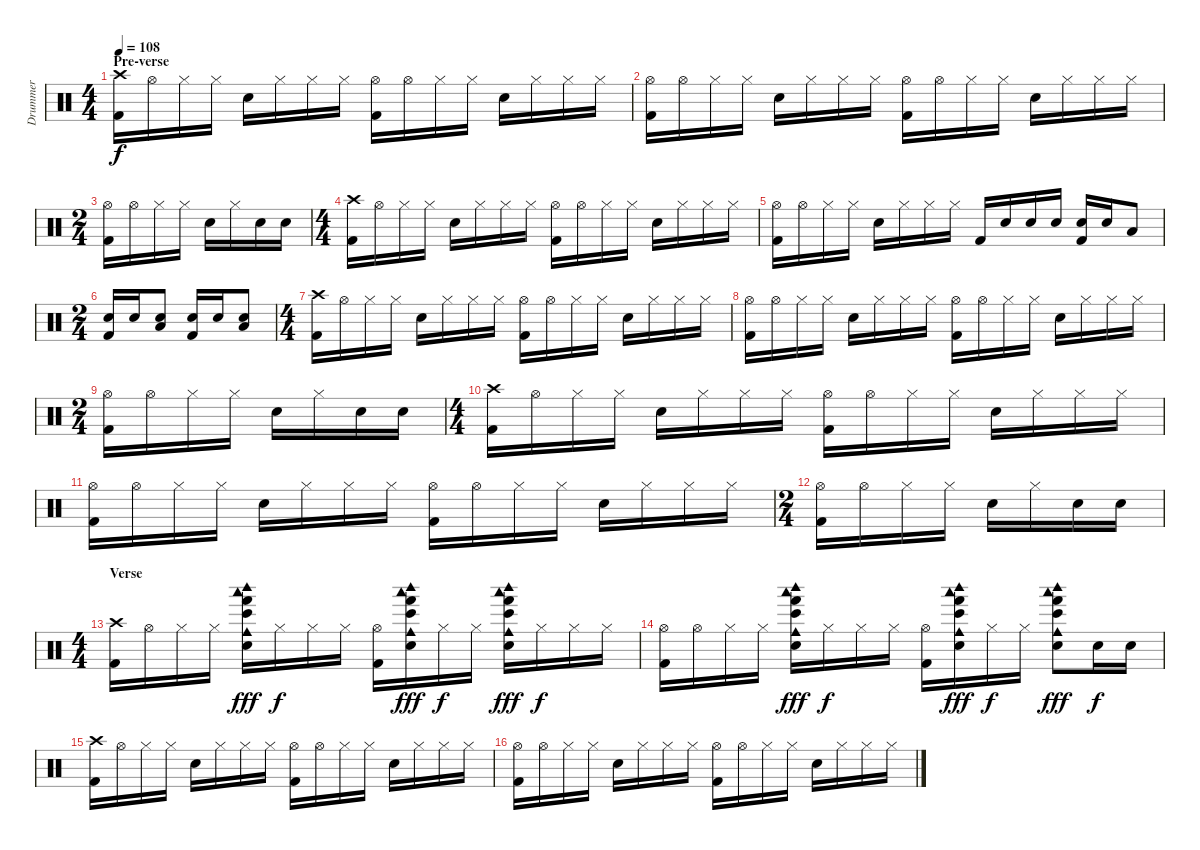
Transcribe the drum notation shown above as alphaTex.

\track ("Drummer" "Drummer") {instrument percussion}
\staff {score}
\articulation defaults
\ts (4 4)
\section ("" "Pre-verse")
\tempo 108
\clef neutral
\ks c
("Crash high (hit)" "Kick (hit) 2").16{dy f} "Hi-Hat (open)".16 "Hi-Hat (closed)".16 "Hi-Hat (closed)".16 "Electric Snare (hit)".16 "Hi-Hat (closed)".16 "Hi-Hat (closed)".16 "Hi-Hat (closed)".16 ("Hi-Hat (open)" "Kick (hit) 2").16 "Hi-Hat (open)".16 "Hi-Hat (closed)".16 "Hi-Hat (closed)".16 "Electric Snare (hit)".16 "Hi-Hat (closed)".16 "Hi-Hat (closed)".16 "Hi-Hat (closed)".16 |
("Hi-Hat (open)" "Kick (hit) 2").16 "Hi-Hat (open)".16 "Hi-Hat (closed)".16 "Hi-Hat (closed)".16 "Electric Snare (hit)".16 "Hi-Hat (closed)".16 "Hi-Hat (closed)".16 "Hi-Hat (closed)".16 ("Hi-Hat (open)" "Kick (hit) 2").16 "Hi-Hat (open)".16 "Hi-Hat (closed)".16 "Hi-Hat (closed)".16 "Electric Snare (hit)".16 "Hi-Hat (closed)".16 "Hi-Hat (closed)".16 "Hi-Hat (closed)".16 |
\ts (2 4)
("Hi-Hat (open)" "Kick (hit) 2").16 "Hi-Hat (open)".16 "Hi-Hat (closed)".16 "Hi-Hat (closed)".16 "Electric Snare (hit)".16 "Hi-Hat (closed)".16 "Electric Snare (hit)".16 "Electric Snare (hit)".16 |
\ts (4 4)
("Crash high (hit)" "Kick (hit) 2").16 "Hi-Hat (open)".16 "Hi-Hat (closed)".16 "Hi-Hat (closed)".16 "Electric Snare (hit)".16 "Hi-Hat (closed)".16 "Hi-Hat (closed)".16 "Hi-Hat (closed)".16 ("Hi-Hat (open)" "Kick (hit) 2").16 "Hi-Hat (open)".16 "Hi-Hat (closed)".16 "Hi-Hat (closed)".16 "Electric Snare (hit)".16 "Hi-Hat (closed)".16 "Hi-Hat (closed)".16 "Hi-Hat (closed)".16 |
("Hi-Hat (open)" "Kick (hit) 2").16 "Hi-Hat (open)".16 "Hi-Hat (closed)".16 "Hi-Hat (closed)".16 "Electric Snare (hit)".16 "Hi-Hat (closed)".16 "Hi-Hat (closed)".16 "Hi-Hat (closed)".16 "Kick (hit) 2".16 "Electric Snare (hit)".16 "Electric Snare (hit)".16 "Electric Snare (hit)".16 ("Electric Snare (hit)" "Kick (hit) 2").16 "Electric Snare (hit)".16 "Low Floor Tom (hit)".8 |
\ts (2 4)
("Electric Snare (hit)" "Kick (hit) 2").16 "Electric Snare (hit)".16 ("Low Floor Tom (hit)" "Electric Snare (hit)").8 ("Electric Snare (hit)" "Kick (hit) 2").16 "Electric Snare (hit)".16 ("Low Floor Tom (hit)" "Electric Snare (hit)").8 |
\ts (4 4)
("Crash high (hit)" "Kick (hit) 2").16 "Hi-Hat (open)".16 "Hi-Hat (closed)".16 "Hi-Hat (closed)".16 "Electric Snare (hit)".16 "Hi-Hat (closed)".16 "Hi-Hat (closed)".16 "Hi-Hat (closed)".16 ("Hi-Hat (open)" "Kick (hit) 2").16 "Hi-Hat (open)".16 "Hi-Hat (closed)".16 "Hi-Hat (closed)".16 "Electric Snare (hit)".16 "Hi-Hat (closed)".16 "Hi-Hat (closed)".16 "Hi-Hat (closed)".16 |
("Hi-Hat (open)" "Kick (hit) 2").16 "Hi-Hat (open)".16 "Hi-Hat (closed)".16 "Hi-Hat (closed)".16 "Electric Snare (hit)".16 "Hi-Hat (closed)".16 "Hi-Hat (closed)".16 "Hi-Hat (closed)".16 ("Hi-Hat (open)" "Kick (hit) 2").16 "Hi-Hat (open)".16 "Hi-Hat (closed)".16 "Hi-Hat (closed)".16 "Electric Snare (hit)".16 "Hi-Hat (closed)".16 "Hi-Hat (closed)".16 "Hi-Hat (closed)".16 |
\ts (2 4)
("Hi-Hat (open)" "Kick (hit) 2").16 "Hi-Hat (open)".16 "Hi-Hat (closed)".16 "Hi-Hat (closed)".16 "Electric Snare (hit)".16 "Hi-Hat (closed)".16 "Electric Snare (hit)".16 "Electric Snare (hit)".16 |
\ts (4 4)
("Crash high (hit)" "Kick (hit) 2").16 "Hi-Hat (open)".16 "Hi-Hat (closed)".16 "Hi-Hat (closed)".16 "Electric Snare (hit)".16 "Hi-Hat (closed)".16 "Hi-Hat (closed)".16 "Hi-Hat (closed)".16 ("Hi-Hat (open)" "Kick (hit) 2").16 "Hi-Hat (open)".16 "Hi-Hat (closed)".16 "Hi-Hat (closed)".16 "Electric Snare (hit)".16 "Hi-Hat (closed)".16 "Hi-Hat (closed)".16 "Hi-Hat (closed)".16 |
("Hi-Hat (open)" "Kick (hit) 2").16 "Hi-Hat (open)".16 "Hi-Hat (closed)".16 "Hi-Hat (closed)".16 "Electric Snare (hit)".16 "Hi-Hat (closed)".16 "Hi-Hat (closed)".16 "Hi-Hat (closed)".16 ("Hi-Hat (open)" "Kick (hit) 2").16 "Hi-Hat (open)".16 "Hi-Hat (closed)".16 "Hi-Hat (closed)".16 "Electric Snare (hit)".16 "Hi-Hat (closed)".16 "Hi-Hat (closed)".16 "Hi-Hat (closed)".16 |
\ts (2 4)
("Hi-Hat (open)" "Kick (hit) 2").16 "Hi-Hat (open)".16 "Hi-Hat (closed)".16 "Hi-Hat (closed)".16 "Electric Snare (hit)".16 "Hi-Hat (closed)".16 "Electric Snare (hit)".16 "Electric Snare (hit)".16 |
\ts (4 4)
\section ("" "Verse")
("Crash high (hit)" "Kick (hit) 2").16 "Hi-Hat (open)".16 "Hi-Hat (closed)".16 "Hi-Hat (closed)".16 ("Woodblock low (hit)" "Woodblock high (hit)" "Cowbell medium (hit)" "Electric Snare (hit)" "Hand (hit)" "Bongo High (hit)").16{dy fff} "Hi-Hat (closed)".16{dy f} "Hi-Hat (closed)".16 "Hi-Hat (closed)".16 ("Hi-Hat (open)" "Kick (hit) 2").16 ("Woodblock low (hit)" "Woodblock high (hit)" "Cowbell medium (hit)" "Electric Snare (hit)" "Hand (hit)" "Bongo High (hit)").16{dy fff} "Hi-Hat (closed)".16{dy f} "Hi-Hat (closed)".16 ("Woodblock low (hit)" "Woodblock high (hit)" "Cowbell medium (hit)" "Electric Snare (hit)" "Hand (hit)" "Bongo High (hit)").16{dy fff} "Hi-Hat (closed)".16{dy f} "Hi-Hat (closed)".16 "Hi-Hat (closed)".16 |
("Hi-Hat (open)" "Kick (hit) 2").16 "Hi-Hat (open)".16 "Hi-Hat (closed)".16 "Hi-Hat (closed)".16 ("Woodblock low (hit)" "Woodblock high (hit)" "Cowbell medium (hit)" "Electric Snare (hit)" "Hand (hit)" "Bongo High (hit)").16{dy fff} "Hi-Hat (closed)".16{dy f} "Hi-Hat (closed)".16 "Hi-Hat (closed)".16 ("Hi-Hat (open)" "Kick (hit) 2").16 ("Woodblock low (hit)" "Woodblock high (hit)" "Cowbell medium (hit)" "Electric Snare (hit)" "Hand (hit)" "Bongo High (hit)").16{dy fff} "Hi-Hat (closed)".16{dy f} "Hi-Hat (closed)".16 ("Woodblock low (hit)" "Woodblock high (hit)" "Cowbell medium (hit)" "Electric Snare (hit)" "Hand (hit)" "Bongo High (hit)").8{dy fff} "Electric Snare (hit)".16{dy f} "Electric Snare (hit)".16 |
("Crash high (hit)" "Kick (hit) 2").16 "Hi-Hat (open)".16 "Hi-Hat (closed)".16 "Hi-Hat (closed)".16 "Electric Snare (hit)".16 "Hi-Hat (closed)".16 "Hi-Hat (closed)".16 "Hi-Hat (closed)".16 ("Hi-Hat (open)" "Kick (hit) 2").16 "Hi-Hat (open)".16 "Hi-Hat (closed)".16 "Hi-Hat (closed)".16 "Electric Snare (hit)".16 "Hi-Hat (closed)".16 "Hi-Hat (closed)".16 "Hi-Hat (closed)".16 |
("Hi-Hat (open)" "Kick (hit) 2").16 "Hi-Hat (open)".16 "Hi-Hat (closed)".16 "Hi-Hat (closed)".16 "Electric Snare (hit)".16 "Hi-Hat (closed)".16 "Hi-Hat (closed)".16 "Hi-Hat (closed)".16 ("Hi-Hat (open)" "Kick (hit) 2").16 "Hi-Hat (open)".16 "Hi-Hat (closed)".16 "Hi-Hat (closed)".16 "Electric Snare (hit)".16 "Hi-Hat (closed)".16 "Hi-Hat (closed)".16 "Hi-Hat (closed)".16
